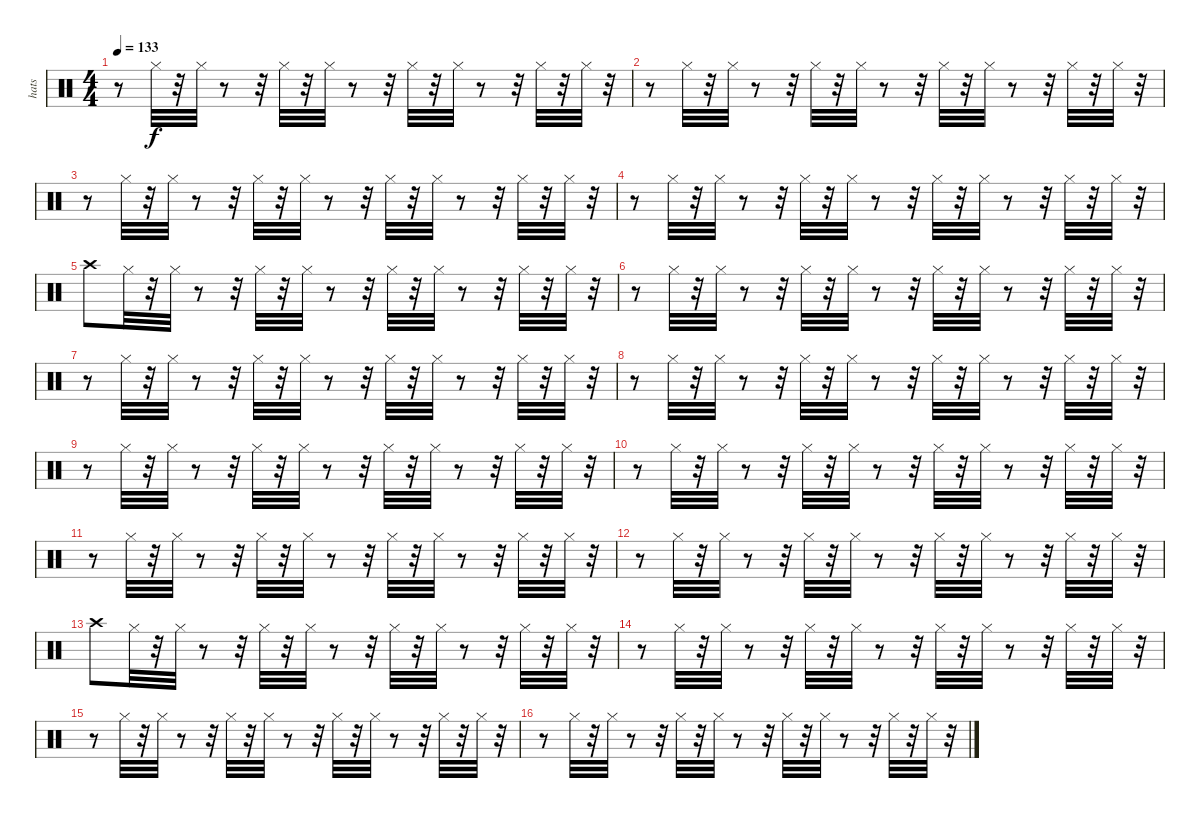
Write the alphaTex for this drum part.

\track ("hats" "hats") {instrument percussion}
\staff {score}
\articulation defaults
\ts (4 4)
\tempo 133
\clef neutral
\ks c
r.8{dy f} "Hi-Hat (closed)".32 r.32 "Hi-Hat (closed)".32 r.8 r.32 "Hi-Hat (closed)".32 r.32 "Hi-Hat (closed)".32 r.8 r.32 "Hi-Hat (closed)".32 r.32 "Hi-Hat (closed)".32 r.8 r.32 "Hi-Hat (closed)".32 r.32 "Hi-Hat (closed)".32 r.32 |
r.8 "Hi-Hat (closed)".32 r.32 "Hi-Hat (closed)".32 r.8 r.32 "Hi-Hat (closed)".32 r.32 "Hi-Hat (closed)".32 r.8 r.32 "Hi-Hat (closed)".32 r.32 "Hi-Hat (closed)".32 r.8 r.32 "Hi-Hat (closed)".32 r.32 "Hi-Hat (closed)".32 r.32 |
r.8 "Hi-Hat (closed)".32 r.32 "Hi-Hat (closed)".32 r.8 r.32 "Hi-Hat (closed)".32 r.32 "Hi-Hat (closed)".32 r.8 r.32 "Hi-Hat (closed)".32 r.32 "Hi-Hat (closed)".32 r.8 r.32 "Hi-Hat (closed)".32 r.32 "Hi-Hat (closed)".32 r.32 |
r.8 "Hi-Hat (closed)".32 r.32 "Hi-Hat (closed)".32 r.8 r.32 "Hi-Hat (closed)".32 r.32 "Hi-Hat (closed)".32 r.8 r.32 "Hi-Hat (closed)".32 r.32 "Hi-Hat (closed)".32 r.8 r.32 "Hi-Hat (closed)".32 r.32 "Hi-Hat (closed)".32 r.32 |
"Crash high (hit)".8 "Hi-Hat (closed)".32 r.32 "Hi-Hat (closed)".32 r.8 r.32 "Hi-Hat (closed)".32 r.32 "Hi-Hat (closed)".32 r.8 r.32 "Hi-Hat (closed)".32 r.32 "Hi-Hat (closed)".32 r.8 r.32 "Hi-Hat (closed)".32 r.32 "Hi-Hat (closed)".32 r.32 |
r.8 "Hi-Hat (closed)".32 r.32 "Hi-Hat (closed)".32 r.8 r.32 "Hi-Hat (closed)".32 r.32 "Hi-Hat (closed)".32 r.8 r.32 "Hi-Hat (closed)".32 r.32 "Hi-Hat (closed)".32 r.8 r.32 "Hi-Hat (closed)".32 r.32 "Hi-Hat (closed)".32 r.32 |
r.8 "Hi-Hat (closed)".32 r.32 "Hi-Hat (closed)".32 r.8 r.32 "Hi-Hat (closed)".32 r.32 "Hi-Hat (closed)".32 r.8 r.32 "Hi-Hat (closed)".32 r.32 "Hi-Hat (closed)".32 r.8 r.32 "Hi-Hat (closed)".32 r.32 "Hi-Hat (closed)".32 r.32 |
r.8 "Hi-Hat (closed)".32 r.32 "Hi-Hat (closed)".32 r.8 r.32 "Hi-Hat (closed)".32 r.32 "Hi-Hat (closed)".32 r.8 r.32 "Hi-Hat (closed)".32 r.32 "Hi-Hat (closed)".32 r.8 r.32 "Hi-Hat (closed)".32 r.32 "Hi-Hat (closed)".32 r.32 |
r.8 "Hi-Hat (closed)".32 r.32 "Hi-Hat (closed)".32 r.8 r.32 "Hi-Hat (closed)".32 r.32 "Hi-Hat (closed)".32 r.8 r.32 "Hi-Hat (closed)".32 r.32 "Hi-Hat (closed)".32 r.8 r.32 "Hi-Hat (closed)".32 r.32 "Hi-Hat (closed)".32 r.32 |
r.8 "Hi-Hat (closed)".32 r.32 "Hi-Hat (closed)".32 r.8 r.32 "Hi-Hat (closed)".32 r.32 "Hi-Hat (closed)".32 r.8 r.32 "Hi-Hat (closed)".32 r.32 "Hi-Hat (closed)".32 r.8 r.32 "Hi-Hat (closed)".32 r.32 "Hi-Hat (closed)".32 r.32 |
r.8 "Hi-Hat (closed)".32 r.32 "Hi-Hat (closed)".32 r.8 r.32 "Hi-Hat (closed)".32 r.32 "Hi-Hat (closed)".32 r.8 r.32 "Hi-Hat (closed)".32 r.32 "Hi-Hat (closed)".32 r.8 r.32 "Hi-Hat (closed)".32 r.32 "Hi-Hat (closed)".32 r.32 |
r.8 "Hi-Hat (closed)".32 r.32 "Hi-Hat (closed)".32 r.8 r.32 "Hi-Hat (closed)".32 r.32 "Hi-Hat (closed)".32 r.8 r.32 "Hi-Hat (closed)".32 r.32 "Hi-Hat (closed)".32 r.8 r.32 "Hi-Hat (closed)".32 r.32 "Hi-Hat (closed)".32 r.32 |
"Crash high (hit)".8 "Hi-Hat (closed)".32 r.32 "Hi-Hat (closed)".32 r.8 r.32 "Hi-Hat (closed)".32 r.32 "Hi-Hat (closed)".32 r.8 r.32 "Hi-Hat (closed)".32 r.32 "Hi-Hat (closed)".32 r.8 r.32 "Hi-Hat (closed)".32 r.32 "Hi-Hat (closed)".32 r.32 |
r.8 "Hi-Hat (closed)".32 r.32 "Hi-Hat (closed)".32 r.8 r.32 "Hi-Hat (closed)".32 r.32 "Hi-Hat (closed)".32 r.8 r.32 "Hi-Hat (closed)".32 r.32 "Hi-Hat (closed)".32 r.8 r.32 "Hi-Hat (closed)".32 r.32 "Hi-Hat (closed)".32 r.32 |
r.8 "Hi-Hat (closed)".32 r.32 "Hi-Hat (closed)".32 r.8 r.32 "Hi-Hat (closed)".32 r.32 "Hi-Hat (closed)".32 r.8 r.32 "Hi-Hat (closed)".32 r.32 "Hi-Hat (closed)".32 r.8 r.32 "Hi-Hat (closed)".32 r.32 "Hi-Hat (closed)".32 r.32 |
r.8 "Hi-Hat (closed)".32 r.32 "Hi-Hat (closed)".32 r.8 r.32 "Hi-Hat (closed)".32 r.32 "Hi-Hat (closed)".32 r.8 r.32 "Hi-Hat (closed)".32 r.32 "Hi-Hat (closed)".32 r.8 r.32 "Hi-Hat (closed)".32 r.32 "Hi-Hat (closed)".32 r.32
